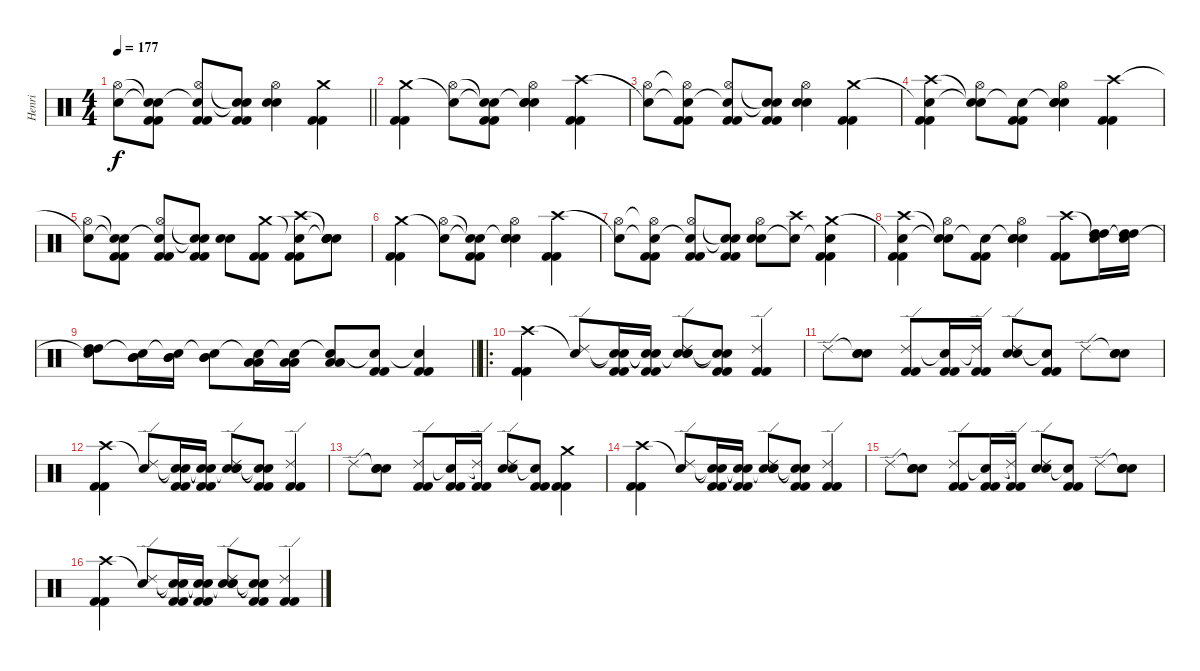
\track ("Henri" "Henri") {instrument percussion}
\staff {score}
\articulation defaults
\ts (4 4)
\tempo 177
\clef neutral
\barLineRight lightlight
\ks c
("Snare (hit)"{t} "Hi-Hat (open)").8{dy f} ("Snare (hit)"{t} "Snare (hit)"{t} "Kick (hit) 2" "Kick (hit) 2").8 ("Snare (hit)"{t} "Hi-Hat (open)" "Kick (hit) 2" "Kick (hit) 2").8 ("Snare (hit)"{t} "Snare (hit)"{t} "Kick (hit) 2" "Kick (hit) 2").8 ("Hi-Hat (open)" "Snare (hit) 2" "Snare (hit) 2").4 ("Crash medium (hit)" "Kick (hit) 2" "Kick (hit) 2").4 |
("Crash medium (hit)" "Kick (hit) 2" "Kick (hit) 2").4 ("Snare (hit)"{t} "Hi-Hat (open)").8 ("Snare (hit)"{t} "Snare (hit)"{t} "Kick (hit) 2" "Kick (hit) 2").8 ("Snare (hit)"{t} "Hi-Hat (open)" "Snare (hit) 2" "Snare (hit) 2").4 ("Crash high (hit)" "Kick (hit) 2" "Kick (hit) 2").4 |
("Snare (hit)"{t} "Hi-Hat (open)").8 ("Snare (hit)"{t} "Hi-Hat (open)"{t} "Kick (hit) 2" "Kick (hit) 2").8 ("Snare (hit)"{t} "Hi-Hat (open)" "Kick (hit) 2" "Kick (hit) 2").8 ("Snare (hit)"{t} "Snare (hit)"{t} "Kick (hit) 2" "Kick (hit) 2").8 ("Hi-Hat (open)" "Snare (hit) 2" "Snare (hit) 2").4 ("Crash medium (hit)" "Kick (hit) 2" "Kick (hit) 2").4 |
("Snare (hit)"{t} "Crash high (hit)" "Kick (hit) 2" "Kick (hit) 2").4 ("Snare (hit)"{t} "Snare (hit)"{t} "Hi-Hat (open)").8 ("Snare (hit)"{t} "Kick (hit) 2" "Kick (hit) 2").8 ("Snare (hit)"{t} "Hi-Hat (open)" "Snare (hit) 2" "Snare (hit) 2").4 ("Crash high (hit)" "Kick (hit) 2" "Kick (hit) 2").4 |
("Snare (hit)"{t} "Hi-Hat (open)").8 ("Snare (hit)"{t} "Snare (hit)"{t} "Kick (hit) 2" "Kick (hit) 2").8 ("Snare (hit)"{t} "Hi-Hat (open)" "Kick (hit) 2" "Kick (hit) 2").8 ("Snare (hit)"{t} "Snare (hit)"{t} "Kick (hit) 2" "Kick (hit) 2").8 ("Snare (hit) 2" "Snare (hit) 2").8 ("Crash medium (hit)" "Kick (hit) 2" "Kick (hit) 2").8 ("Snare (hit)"{t} "Crash high (hit)" "Kick (hit) 2" "Kick (hit) 2").8 ("Snare (hit)"{t} "Snare (hit)"{t} "Snare (hit) 2" "Snare (hit) 2").8 |
("Crash medium (hit)" "Kick (hit) 2" "Kick (hit) 2").4 ("Snare (hit)"{t} "Hi-Hat (open)").8 ("Snare (hit)"{t} "Snare (hit)"{t} "Kick (hit) 2" "Kick (hit) 2").8 ("Snare (hit)"{t} "Hi-Hat (open)" "Snare (hit) 2" "Snare (hit) 2").4 ("Crash high (hit)" "Kick (hit) 2" "Kick (hit) 2").4 |
("Snare (hit)"{t} "Hi-Hat (open)").8 ("Snare (hit)"{t} "Hi-Hat (open)"{t} "Kick (hit) 2" "Kick (hit) 2").8 ("Snare (hit)"{t} "Hi-Hat (open)" "Kick (hit) 2" "Kick (hit) 2").8 ("Snare (hit)"{t} "Snare (hit)"{t} "Kick (hit) 2" "Kick (hit) 2").8 ("Hi-Hat (open)" "Snare (hit) 2" "Snare (hit) 2").8 ("Crash high (hit)" "Snare (hit)"{t}).8 ("Crash medium (hit)" "Snare (hit)"{t} "Kick (hit) 2" "Kick (hit) 2").4 |
("Snare (hit)"{t} "Crash high (hit)" "Kick (hit) 2" "Kick (hit) 2").4 ("Snare (hit)"{t} "Snare (hit)"{t} "Hi-Hat (open)").8 ("Snare (hit)"{t} "Kick (hit) 2" "Kick (hit) 2").8 ("Snare (hit)"{t} "Hi-Hat (open)" "Snare (hit) 2" "Snare (hit) 2").4 ("Crash high (hit)" "Kick (hit) 2" "Kick (hit) 2").8 ("Snare (hit)"{t} "High Tom (hit)" "High Tom (hit)").16 ("Snare (hit)"{t} "High Tom (hit)" "High Tom (hit)").16 |
\barLineRight lightlight
("Snare (hit)"{t} "High Tom (hit)" "High Tom (hit)").8 ("Snare (hit)"{t} "Mid Tom (hit)" "Mid Tom (hit)").16 ("Snare (hit)"{t} "Mid Tom (hit)" "Mid Tom (hit)").16 ("Snare (hit)"{t} "Mid Tom (hit)" "Mid Tom (hit)").8 ("Snare (hit)"{t} "Low Tom (hit)" "Low Tom (hit)").16 ("Snare (hit)"{t} "Low Tom (hit)" "Low Tom (hit)").16 ("Snare (hit)"{t} "Low Tom (hit)" "Low Tom (hit)").8 ("Snare (hit)"{t} "Kick (hit) 2" "Kick (hit) 2").8 ("Snare (hit)"{t} "Kick (hit) 2" "Kick (hit) 2").4 |
\ro
("Crash high (hit)" "Kick (hit) 2" "Kick (hit) 2").4 ("Snare (hit)"{t} "Ride (edge) 2").8 ("Snare (hit)"{t} "Snare (hit)"{t} "Kick (hit) 2" "Kick (hit) 2").16 ("Snare (hit)"{t} "Snare (hit)"{t} "Kick (hit) 2" "Kick (hit) 2").16 ("Snare (hit)"{t} "Ride (edge) 2" "Snare (hit) 2" "Snare (hit) 2").8 ("Snare (hit)"{t} "Snare (hit)"{t} "Kick (hit) 2" "Kick (hit) 2").8 ("Ride (edge) 2" "Kick (hit) 2" "Kick (hit) 2").4 |
"Ride (edge) 2".8 ("Snare (hit)"{t} "Snare (hit) 2" "Snare (hit) 2").8 ("Ride (edge) 2" "Kick (hit) 2" "Kick (hit) 2").8 ("Snare (hit)"{t} "Kick (hit) 2" "Kick (hit) 2").16 ("Ride (edge) 2"{t} "Kick (hit) 2" "Kick (hit) 2").16 ("Ride (edge) 2" "Snare (hit) 2" "Snare (hit) 2").8 ("Snare (hit)"{t} "Kick (hit) 2" "Kick (hit) 2").8 "Ride (edge) 2".8 ("Snare (hit)"{t} "Snare (hit) 2" "Snare (hit) 2").8 |
("Crash high (hit)" "Kick (hit) 2" "Kick (hit) 2").4 ("Snare (hit)"{t} "Ride (edge) 2").8 ("Snare (hit)"{t} "Snare (hit)"{t} "Kick (hit) 2" "Kick (hit) 2").16 ("Snare (hit)"{t} "Snare (hit)"{t} "Kick (hit) 2" "Kick (hit) 2").16 ("Snare (hit)"{t} "Ride (edge) 2" "Snare (hit) 2" "Snare (hit) 2").8 ("Snare (hit)"{t} "Snare (hit)"{t} "Kick (hit) 2" "Kick (hit) 2").8 ("Ride (edge) 2" "Kick (hit) 2" "Kick (hit) 2").4 |
"Ride (edge) 2".8 ("Snare (hit)"{t} "Snare (hit) 2" "Snare (hit) 2").8 ("Ride (edge) 2" "Kick (hit) 2" "Kick (hit) 2").8 ("Snare (hit)"{t} "Kick (hit) 2" "Kick (hit) 2").16 ("Ride (edge) 2"{t} "Kick (hit) 2" "Kick (hit) 2").16 ("Ride (edge) 2" "Snare (hit) 2" "Snare (hit) 2").8 ("Snare (hit)"{t} "Kick (hit) 2" "Kick (hit) 2").8 ("Crash medium (hit)" "Kick (hit) 2" "Kick (hit) 2").4 |
("Crash high (hit)" "Kick (hit) 2" "Kick (hit) 2").4 ("Snare (hit)"{t} "Ride (edge) 2").8 ("Snare (hit)"{t} "Snare (hit)"{t} "Kick (hit) 2" "Kick (hit) 2").16 ("Snare (hit)"{t} "Snare (hit)"{t} "Kick (hit) 2" "Kick (hit) 2").16 ("Snare (hit)"{t} "Ride (edge) 2" "Snare (hit) 2" "Snare (hit) 2").8 ("Snare (hit)"{t} "Snare (hit)"{t} "Kick (hit) 2" "Kick (hit) 2").8 ("Ride (edge) 2" "Kick (hit) 2" "Kick (hit) 2").4 |
"Ride (edge) 2".8 ("Snare (hit)"{t} "Snare (hit) 2" "Snare (hit) 2").8 ("Ride (edge) 2" "Kick (hit) 2" "Kick (hit) 2").8 ("Snare (hit)"{t} "Kick (hit) 2" "Kick (hit) 2").16 ("Ride (edge) 2"{t} "Kick (hit) 2" "Kick (hit) 2").16 ("Ride (edge) 2" "Snare (hit) 2" "Snare (hit) 2").8 ("Snare (hit)"{t} "Kick (hit) 2" "Kick (hit) 2").8 "Ride (edge) 2".8 ("Snare (hit)"{t} "Snare (hit) 2" "Snare (hit) 2").8 |
("Crash high (hit)" "Kick (hit) 2" "Kick (hit) 2").4 ("Snare (hit)"{t} "Ride (edge) 2").8 ("Snare (hit)"{t} "Snare (hit)"{t} "Kick (hit) 2" "Kick (hit) 2").16 ("Snare (hit)"{t} "Snare (hit)"{t} "Kick (hit) 2" "Kick (hit) 2").16 ("Snare (hit)"{t} "Ride (edge) 2" "Snare (hit) 2" "Snare (hit) 2").8 ("Snare (hit)"{t} "Snare (hit)"{t} "Kick (hit) 2" "Kick (hit) 2").8 ("Ride (edge) 2" "Kick (hit) 2" "Kick (hit) 2").4
